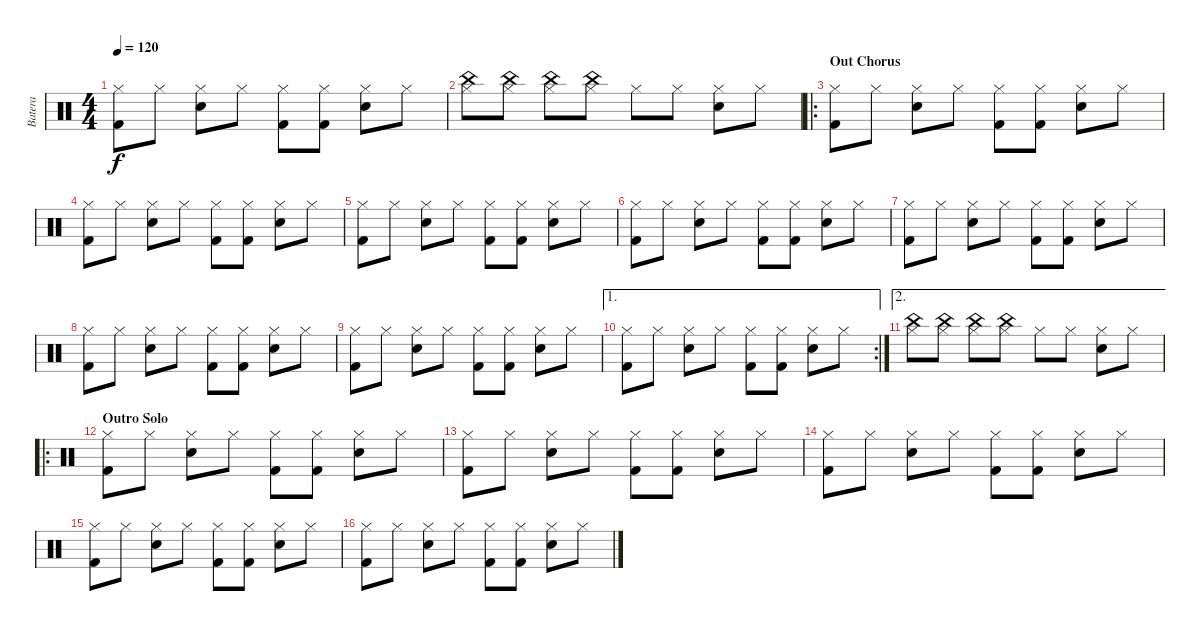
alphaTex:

\track ("Batera" "Batera") {instrument percussion}
\staff {score}
\articulation defaults
\ts (4 4)
\tempo 120
\clef neutral
\ks c
("Hi-Hat (closed)" "Kick (hit) 2").8{dy f} "Hi-Hat (closed)".8 ("Hi-Hat (closed)" "Snare (hit) 2").8 "Hi-Hat (closed)".8 ("Hi-Hat (closed)" "Kick (hit) 2").8 ("Hi-Hat (closed)" "Kick (hit) 2").8 ("Hi-Hat (closed)" "Snare (hit) 2").8 "Hi-Hat (closed)".8 |
("Hi-Hat (closed)" "China (hit)").8 ("Hi-Hat (closed)" "China (hit)").8 ("Hi-Hat (closed)" "China (hit)").8 ("Hi-Hat (closed)" "China (hit)").8 "Hi-Hat (closed)".8 "Hi-Hat (closed)".8 ("Hi-Hat (closed)" "Snare (hit) 2").8 "Hi-Hat (closed)".8 |
\ro
\section ("" "Out Chorus")
("Hi-Hat (closed)" "Kick (hit) 2").8 "Hi-Hat (closed)".8 ("Hi-Hat (closed)" "Snare (hit) 2").8 "Hi-Hat (closed)".8 ("Hi-Hat (closed)" "Kick (hit) 2").8 ("Hi-Hat (closed)" "Kick (hit) 2").8 ("Hi-Hat (closed)" "Snare (hit) 2").8 "Hi-Hat (closed)".8 |
("Hi-Hat (closed)" "Kick (hit) 2").8 "Hi-Hat (closed)".8 ("Hi-Hat (closed)" "Snare (hit) 2").8 "Hi-Hat (closed)".8 ("Hi-Hat (closed)" "Kick (hit) 2").8 ("Hi-Hat (closed)" "Kick (hit) 2").8 ("Hi-Hat (closed)" "Snare (hit) 2").8 "Hi-Hat (closed)".8 |
("Hi-Hat (closed)" "Kick (hit) 2").8 "Hi-Hat (closed)".8 ("Hi-Hat (closed)" "Snare (hit) 2").8 "Hi-Hat (closed)".8 ("Hi-Hat (closed)" "Kick (hit) 2").8 ("Hi-Hat (closed)" "Kick (hit) 2").8 ("Hi-Hat (closed)" "Snare (hit) 2").8 "Hi-Hat (closed)".8 |
("Hi-Hat (closed)" "Kick (hit) 2").8 "Hi-Hat (closed)".8 ("Hi-Hat (closed)" "Snare (hit) 2").8 "Hi-Hat (closed)".8 ("Hi-Hat (closed)" "Kick (hit) 2").8 ("Hi-Hat (closed)" "Kick (hit) 2").8 ("Hi-Hat (closed)" "Snare (hit) 2").8 "Hi-Hat (closed)".8 |
("Hi-Hat (closed)" "Kick (hit) 2").8 "Hi-Hat (closed)".8 ("Hi-Hat (closed)" "Snare (hit) 2").8 "Hi-Hat (closed)".8 ("Hi-Hat (closed)" "Kick (hit) 2").8 ("Hi-Hat (closed)" "Kick (hit) 2").8 ("Hi-Hat (closed)" "Snare (hit) 2").8 "Hi-Hat (closed)".8 |
("Hi-Hat (closed)" "Kick (hit) 2").8 "Hi-Hat (closed)".8 ("Hi-Hat (closed)" "Snare (hit) 2").8 "Hi-Hat (closed)".8 ("Hi-Hat (closed)" "Kick (hit) 2").8 ("Hi-Hat (closed)" "Kick (hit) 2").8 ("Hi-Hat (closed)" "Snare (hit) 2").8 "Hi-Hat (closed)".8 |
("Hi-Hat (closed)" "Kick (hit) 2").8 "Hi-Hat (closed)".8 ("Hi-Hat (closed)" "Snare (hit) 2").8 "Hi-Hat (closed)".8 ("Hi-Hat (closed)" "Kick (hit) 2").8 ("Hi-Hat (closed)" "Kick (hit) 2").8 ("Hi-Hat (closed)" "Snare (hit) 2").8 "Hi-Hat (closed)".8 |
\ae 1
\rc 2
("Hi-Hat (closed)" "Kick (hit) 2").8 "Hi-Hat (closed)".8 ("Hi-Hat (closed)" "Snare (hit) 2").8 "Hi-Hat (closed)".8 ("Hi-Hat (closed)" "Kick (hit) 2").8 ("Hi-Hat (closed)" "Kick (hit) 2").8 ("Hi-Hat (closed)" "Snare (hit) 2").8 "Hi-Hat (closed)".8 |
\ae 2
("Hi-Hat (closed)" "China (hit)").8 ("Hi-Hat (closed)" "China (hit)").8 ("Hi-Hat (closed)" "China (hit)").8 ("Hi-Hat (closed)" "China (hit)").8 "Hi-Hat (closed)".8 "Hi-Hat (closed)".8 ("Hi-Hat (closed)" "Snare (hit) 2").8 "Hi-Hat (closed)".8 |
\ro
\section ("" "Outro Solo")
("Hi-Hat (closed)" "Kick (hit) 2").8 "Hi-Hat (closed)".8 ("Hi-Hat (closed)" "Snare (hit) 2").8 "Hi-Hat (closed)".8 ("Hi-Hat (closed)" "Kick (hit) 2").8 ("Hi-Hat (closed)" "Kick (hit) 2").8 ("Hi-Hat (closed)" "Snare (hit) 2").8 "Hi-Hat (closed)".8 |
("Hi-Hat (closed)" "Kick (hit) 2").8 "Hi-Hat (closed)".8 ("Hi-Hat (closed)" "Snare (hit) 2").8 "Hi-Hat (closed)".8 ("Hi-Hat (closed)" "Kick (hit) 2").8 ("Hi-Hat (closed)" "Kick (hit) 2").8 ("Hi-Hat (closed)" "Snare (hit) 2").8 "Hi-Hat (closed)".8 |
("Hi-Hat (closed)" "Kick (hit) 2").8 "Hi-Hat (closed)".8 ("Hi-Hat (closed)" "Snare (hit) 2").8 "Hi-Hat (closed)".8 ("Hi-Hat (closed)" "Kick (hit) 2").8 ("Hi-Hat (closed)" "Kick (hit) 2").8 ("Hi-Hat (closed)" "Snare (hit) 2").8 "Hi-Hat (closed)".8 |
("Hi-Hat (closed)" "Kick (hit) 2").8 "Hi-Hat (closed)".8 ("Hi-Hat (closed)" "Snare (hit) 2").8 "Hi-Hat (closed)".8 ("Hi-Hat (closed)" "Kick (hit) 2").8 ("Hi-Hat (closed)" "Kick (hit) 2").8 ("Hi-Hat (closed)" "Snare (hit) 2").8 "Hi-Hat (closed)".8 |
("Hi-Hat (closed)" "Kick (hit) 2").8 "Hi-Hat (closed)".8 ("Hi-Hat (closed)" "Snare (hit) 2").8 "Hi-Hat (closed)".8 ("Hi-Hat (closed)" "Kick (hit) 2").8 ("Hi-Hat (closed)" "Kick (hit) 2").8 ("Hi-Hat (closed)" "Snare (hit) 2").8 "Hi-Hat (closed)".8
